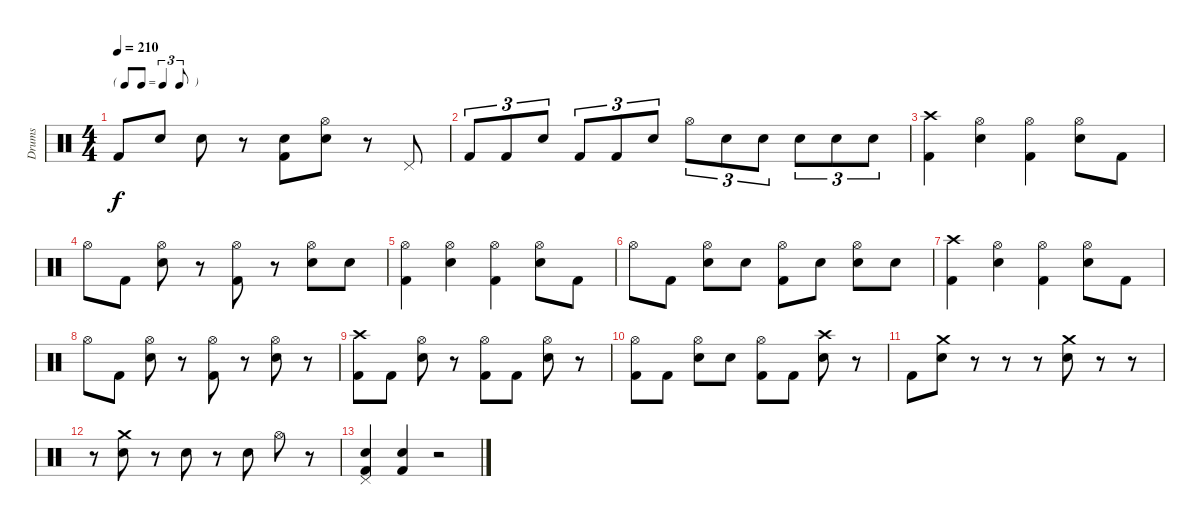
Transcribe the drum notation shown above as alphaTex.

\track ("Drums" "Drums") {instrument percussion}
\staff {score}
\articulation defaults
\ts (4 4)
\tf triplet8th
\tempo 210
\clef neutral
\ks c "Kick (hit) 2".8{dy f} "Snare (hit) 2".8 "Snare (hit) 2".8
r.8 ("Snare (hit) 2" "Kick (hit) 2").8 ("Hi-Hat (open)" "Snare (hit) 2").8 r.8 "Pedal Hi-Hat (hit)".8 |
"Kick (hit) 2".8{tu (3 2)} "Kick (hit) 2".8{tu (3 2)} "Snare (hit) 2".8{tu (3 2)} "Kick (hit) 2".8{tu (3 2)} "Kick (hit) 2".8{tu (3 2)} "Snare (hit) 2".8{tu (3 2)} "Hi-Hat (open)".8{tu (3 2)} "Snare (hit) 2".8{tu (3 2)} "Snare (hit) 2".8{tu (3 2)} "Snare (hit) 2".8{tu (3 2)} "Snare (hit) 2".8{tu (3 2)} "Snare (hit) 2".8{tu (3 2)} |
("Crash high (hit)" "Kick (hit) 2").4 ("Hi-Hat (open)" "Snare (hit) 2").4 ("Hi-Hat (open)" "Kick (hit) 2").4 ("Hi-Hat (open)" "Snare (hit) 2").8 "Kick (hit) 2".8 |
"Hi-Hat (open)".8 "Kick (hit) 2".8 ("Hi-Hat (open)" "Snare (hit) 2").8 r.8 ("Hi-Hat (open)" "Kick (hit) 2").8 r.8 ("Hi-Hat (open)" "Snare (hit) 2").8 "Snare (hit) 2".8 |
("Hi-Hat (open)" "Kick (hit) 2").4 ("Hi-Hat (open)" "Snare (hit) 2").4 ("Hi-Hat (open)" "Kick (hit) 2").4 ("Hi-Hat (open)" "Snare (hit) 2").8 "Kick (hit) 2".8 |
"Hi-Hat (open)".8 "Kick (hit) 2".8 ("Hi-Hat (open)" "Snare (hit) 2").8 "Snare (hit) 2".8 ("Hi-Hat (open)" "Kick (hit) 2").8 "Snare (hit) 2".8 ("Hi-Hat (open)" "Snare (hit) 2").8 "Snare (hit) 2".8 |
("Crash high (hit)" "Kick (hit) 2").4 ("Hi-Hat (open)" "Snare (hit) 2").4 ("Hi-Hat (open)" "Kick (hit) 2").4 ("Hi-Hat (open)" "Snare (hit) 2").8 "Kick (hit) 2".8 |
"Hi-Hat (open)".8 "Kick (hit) 2".8 ("Hi-Hat (open)" "Snare (hit) 2").8 r.8 ("Hi-Hat (open)" "Kick (hit) 2").8 r.8 ("Hi-Hat (open)" "Snare (hit) 2").8 r.8 |
("Crash high (hit)" "Kick (hit) 2").8 "Kick (hit) 2".8 ("Hi-Hat (open)" "Snare (hit) 2").8 r.8 ("Hi-Hat (open)" "Kick (hit) 2").8 "Kick (hit) 2".8 ("Hi-Hat (open)" "Snare (hit) 2").8 r.8 |
("Hi-Hat (open)" "Kick (hit) 2").8 "Kick (hit) 2".8 ("Hi-Hat (open)" "Snare (hit) 2").8 "Snare (hit) 2".8 ("Hi-Hat (open)" "Kick (hit) 2").8 "Kick (hit) 2".8 ("Crash high (hit)" "Snare (hit) 2").8 r.8 |
"Kick (hit) 2".8 ("Crash medium (hit)" "Snare (hit) 2").8 r.8 r.8 r.8 ("Crash medium (hit)" "Snare (hit) 2").8 r.8 r.8 |
r.8 ("Crash medium (hit)" "Snare (hit) 2").8 r.8 "Snare (hit) 2".8 r.8 "Snare (hit) 2".8 "Hi-Hat (open)".8 r.8 |
("Pedal Hi-Hat (hit)" "Snare (hit) 2" "Kick (hit) 2").4 ("Snare (hit) 2" "Kick (hit) 2").4 r.2
